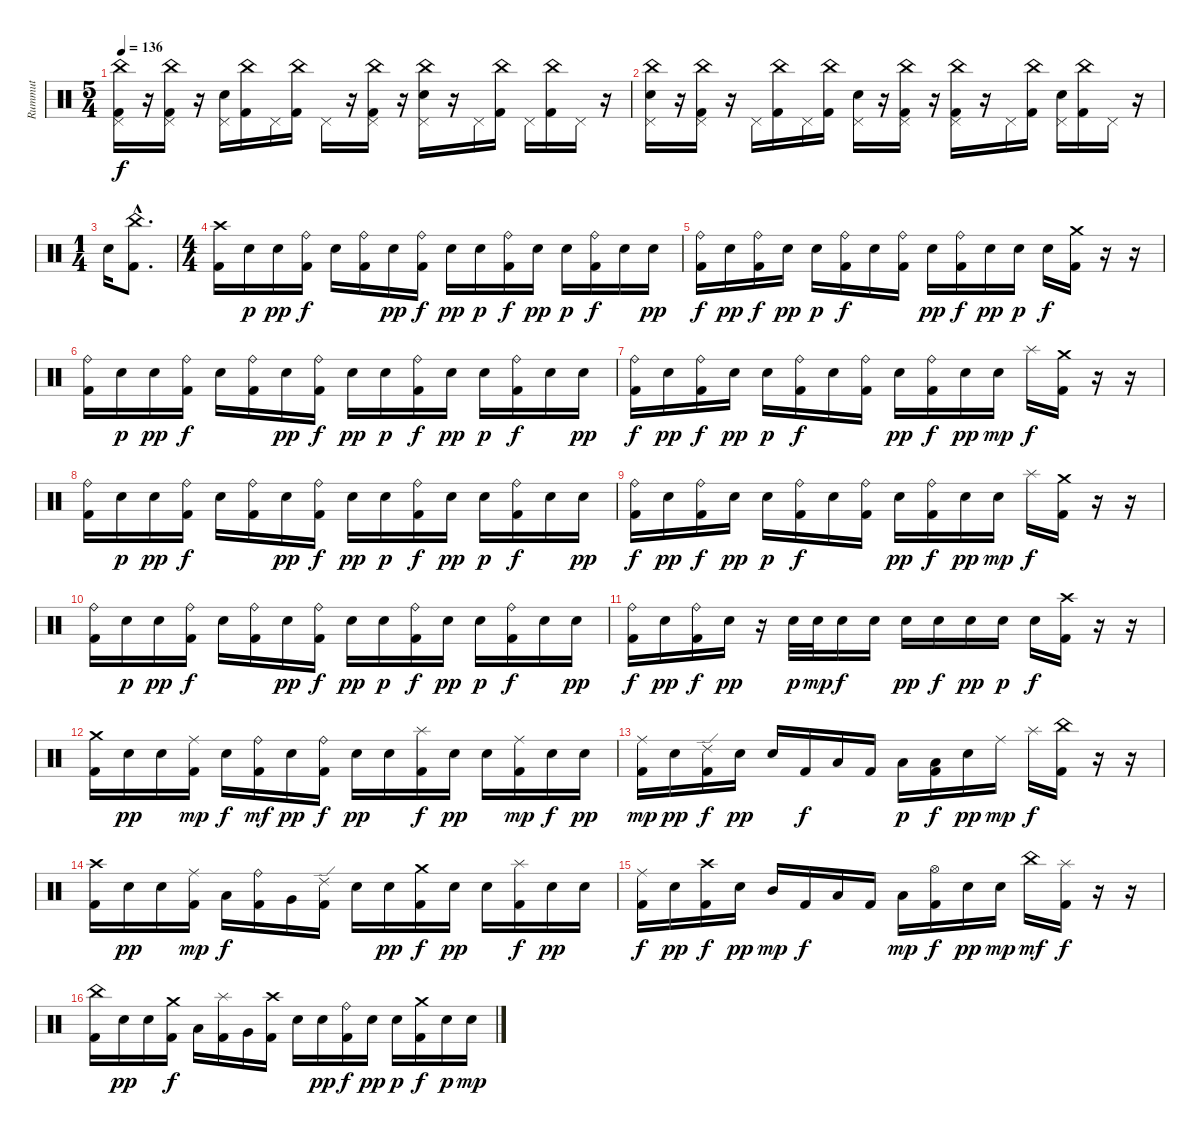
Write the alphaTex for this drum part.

\track ("Rummut" "Rummut") {instrument percussion}
\staff {score}
\articulation defaults
\ts (5 4)
\tempo 136
\clef neutral
\ks c
("China (hit)" "Pedal Hi-Hat (hit)" "Kick (hit) 2").16{dy f} r.16 ("China (hit)" "Pedal Hi-Hat (hit)" "Kick (hit) 2").16 r.16 ("Pedal Hi-Hat (hit)" "Electric Snare (hit)").16 ("China (hit)" "Kick (hit) 2").16 "Pedal Hi-Hat (hit)".16 ("China (hit)" "Kick (hit) 2").16 "Pedal Hi-Hat (hit)".16 r.16 ("China (hit)" "Pedal Hi-Hat (hit)" "Kick (hit) 2").16 r.16 ("China (hit)" "Pedal Hi-Hat (hit)" "Electric Snare (hit)").16 r.16 "Pedal Hi-Hat (hit)".16 ("China (hit)" "Kick (hit) 2").16 "Pedal Hi-Hat (hit)".16 ("China (hit)" "Kick (hit) 2").16 "Pedal Hi-Hat (hit)".16 r.16 |
("China (hit)" "Pedal Hi-Hat (hit)" "Electric Snare (hit)").16 r.16 ("China (hit)" "Pedal Hi-Hat (hit)" "Kick (hit) 2").16 r.16 "Pedal Hi-Hat (hit)".16 ("China (hit)" "Kick (hit) 2").16 "Pedal Hi-Hat (hit)".16 ("China (hit)" "Kick (hit) 2").16 ("Pedal Hi-Hat (hit)" "Electric Snare (hit)").16 r.16 ("China (hit)" "Pedal Hi-Hat (hit)" "Kick (hit) 2").16 r.16 ("China (hit)" "Pedal Hi-Hat (hit)" "Kick (hit) 2").16 r.16 "Pedal Hi-Hat (hit)".16 ("China (hit)" "Kick (hit) 2").16 ("Pedal Hi-Hat (hit)" "Electric Snare (hit)").16 ("China (hit)" "Kick (hit) 2").16 "Pedal Hi-Hat (hit)".16 r.16 |
\ts (1 4)
"Electric Snare (hit)".16 ("China (hit)"{hac} "Kick (hit) 2"{hac}).8{d} |
\ts (4 4)
("Crash high (hit)" "Kick (hit) 2").16 "Electric Snare (hit)".16{dy p} "Electric Snare (hit)".16{dy pp} ("Ride (bell)" "Kick (hit) 2").16{dy f} "Electric Snare (hit)".16 ("Ride (bell)" "Kick (hit) 2").16 "Electric Snare (hit)".16{dy pp} ("Ride (bell)" "Kick (hit) 2").16{dy f} "Electric Snare (hit)".16{dy pp} "Electric Snare (hit)".16{dy p} ("Ride (bell)" "Kick (hit) 2").16{dy f} "Electric Snare (hit)".16{dy pp} "Electric Snare (hit)".16{dy p} ("Ride (bell)" "Kick (hit) 2").16{dy f} "Electric Snare (hit)".16 "Electric Snare (hit)".16{dy pp} |
("Ride (bell)" "Kick (hit) 2").16{dy f} "Electric Snare (hit)".16{dy pp} ("Ride (bell)" "Kick (hit) 2").16{dy f} "Electric Snare (hit)".16{dy pp} "Electric Snare (hit)".16{dy p} ("Ride (bell)" "Kick (hit) 2").16{dy f} "Electric Snare (hit)".16 ("Ride (bell)" "Kick (hit) 2").16 "Electric Snare (hit)".16{dy pp} ("Ride (bell)" "Kick (hit) 2").16{dy f} "Electric Snare (hit)".16{dy pp} "Electric Snare (hit)".16{dy p} "Electric Snare (hit)".16{dy f} ("Crash medium (hit)" "Kick (hit) 2").16 r.16 r.16 |
("Ride (bell)" "Kick (hit) 2").16 "Electric Snare (hit)".16{dy p} "Electric Snare (hit)".16{dy pp} ("Ride (bell)" "Kick (hit) 2").16{dy f} "Electric Snare (hit)".16 ("Ride (bell)" "Kick (hit) 2").16 "Electric Snare (hit)".16{dy pp} ("Ride (bell)" "Kick (hit) 2").16{dy f} "Electric Snare (hit)".16{dy pp} "Electric Snare (hit)".16{dy p} ("Ride (bell)" "Kick (hit) 2").16{dy f} "Electric Snare (hit)".16{dy pp} "Electric Snare (hit)".16{dy p} ("Ride (bell)" "Kick (hit) 2").16{dy f} "Electric Snare (hit)".16 "Electric Snare (hit)".16{dy pp} |
("Ride (bell)" "Kick (hit) 2").16{dy f} "Electric Snare (hit)".16{dy pp} ("Ride (bell)" "Kick (hit) 2").16{dy f} "Electric Snare (hit)".16{dy pp} "Electric Snare (hit)".16{dy p} ("Ride (bell)" "Kick (hit) 2").16{dy f} "Electric Snare (hit)".16 ("Ride (bell)" "Kick (hit) 2").16 "Electric Snare (hit)".16{dy pp} ("Ride (bell)" "Kick (hit) 2").16{dy f} "Electric Snare (hit)".16{dy pp} "Electric Snare (hit)".16{dy mp} "Splash (hit)".16{dy f} ("Crash medium (hit)" "Kick (hit) 2").16 r.16 r.16 |
("Ride (bell)" "Kick (hit) 2").16 "Electric Snare (hit)".16{dy p} "Electric Snare (hit)".16{dy pp} ("Ride (bell)" "Kick (hit) 2").16{dy f} "Electric Snare (hit)".16 ("Ride (bell)" "Kick (hit) 2").16 "Electric Snare (hit)".16{dy pp} ("Ride (bell)" "Kick (hit) 2").16{dy f} "Electric Snare (hit)".16{dy pp} "Electric Snare (hit)".16{dy p} ("Ride (bell)" "Kick (hit) 2").16{dy f} "Electric Snare (hit)".16{dy pp} "Electric Snare (hit)".16{dy p} ("Ride (bell)" "Kick (hit) 2").16{dy f} "Electric Snare (hit)".16 "Electric Snare (hit)".16{dy pp} |
("Ride (bell)" "Kick (hit) 2").16{dy f} "Electric Snare (hit)".16{dy pp} ("Ride (bell)" "Kick (hit) 2").16{dy f} "Electric Snare (hit)".16{dy pp} "Electric Snare (hit)".16{dy p} ("Ride (bell)" "Kick (hit) 2").16{dy f} "Electric Snare (hit)".16 ("Ride (bell)" "Kick (hit) 2").16 "Electric Snare (hit)".16{dy pp} ("Ride (bell)" "Kick (hit) 2").16{dy f} "Electric Snare (hit)".16{dy pp} "Electric Snare (hit)".16{dy mp} "Splash (hit)".16{dy f} ("Crash medium (hit)" "Kick (hit) 2").16 r.16 r.16 |
("Ride (bell)" "Kick (hit) 2").16 "Electric Snare (hit)".16{dy p} "Electric Snare (hit)".16{dy pp} ("Ride (bell)" "Kick (hit) 2").16{dy f} "Electric Snare (hit)".16 ("Ride (bell)" "Kick (hit) 2").16 "Electric Snare (hit)".16{dy pp} ("Ride (bell)" "Kick (hit) 2").16{dy f} "Electric Snare (hit)".16{dy pp} "Electric Snare (hit)".16{dy p} ("Ride (bell)" "Kick (hit) 2").16{dy f} "Electric Snare (hit)".16{dy pp} "Electric Snare (hit)".16{dy p} ("Ride (bell)" "Kick (hit) 2").16{dy f} "Electric Snare (hit)".16 "Electric Snare (hit)".16{dy pp} |
("Ride (bell)" "Kick (hit) 2").16{dy f} "Electric Snare (hit)".16{dy pp} ("Ride (bell)" "Kick (hit) 2").16{dy f} "Electric Snare (hit)".16{dy pp} r.16 "Electric Snare (hit)".32{dy p} "Electric Snare (hit)".32{dy mp} "Electric Snare (hit)".16{dy f} "Electric Snare (hit)".16 "Electric Snare (hit)".16{dy pp} "Electric Snare (hit)".16{dy f} "Electric Snare (hit)".16{dy pp} "Electric Snare (hit)".16{dy p} "Electric Snare (hit)".16{dy f} ("Crash high (hit)" "Kick (hit) 2").16 r.16 r.16 |
("Crash medium (hit)" "Kick (hit) 2").16 "Electric Snare (hit)".16{dy pp} "Electric Snare (hit)".16 ("Ride (middle)" "Kick (hit) 2").16{dy mp} "Electric Snare (hit)".16{dy f} ("Ride (bell)" "Kick (hit) 2").16{dy mf} "Electric Snare (hit)".16{dy pp} ("Ride (bell)" "Kick (hit) 2").16{dy f} "Electric Snare (hit)".16{dy pp} "Electric Snare (hit)".16 ("Splash (hit)" "Kick (hit) 2").16{dy f} "Electric Snare (hit)".16{dy pp} "Electric Snare (hit)".16 ("Ride (middle)" "Kick (hit) 2").16{dy mp} "Electric Snare (hit)".16{dy f} "Electric Snare (hit)".16{dy pp} |
("Ride (middle)" "Kick (hit) 2").16{dy mp} "Electric Snare (hit)".16{dy pp} ("Ride (edge) 2" "Kick (hit) 2").16{dy f} "Electric Snare (hit)".16{dy pp} "Electric Snare (hit)".16 "Kick (hit) 2".16{dy f} "Low Tom (hit)".16 "Kick (hit) 2".16 "Low Tom (hit)".16{dy p} ("Low Tom (hit)" "Kick (hit) 2").16{dy f} "Electric Snare (hit)".16{dy pp} "Ride (middle)".16{dy mp} "Splash (hit)".16{dy f} ("China (hit)" "Kick (hit) 2").16 r.16 r.16 |
("Crash high (hit)" "Kick (hit) 2").16 "Electric Snare (hit)".16{dy pp} "Electric Snare (hit)".16 ("Ride (middle)" "Kick (hit) 2").16{dy mp} "Low Tom (hit)".16{dy f} ("Ride (bell)" "Kick (hit) 2").16 "Very Low Tom (hit)".16 ("Ride (edge) 2" "Kick (hit) 2").16 "Electric Snare (hit)".16 "Electric Snare (hit)".16{dy pp} ("Crash medium (hit)" "Kick (hit) 2").16{dy f} "Electric Snare (hit)".16{dy pp} "Electric Snare (hit)".16 ("Splash (hit)" "Kick (hit) 2").16{dy f} "Electric Snare (hit)".16{dy pp} "Electric Snare (hit)".16 |
("Ride (middle)" "Kick (hit) 2").16{dy f} "Electric Snare (hit)".16{dy pp} ("Crash high (hit)" "Kick (hit) 2").16{dy f} "Electric Snare (hit)".16{dy pp} "Mid Tom (hit)".16{dy mp} "Kick (hit) 2".16{dy f} "Low Tom (hit)".16 "Kick (hit) 2".16 "Low Tom (hit)".16{dy mp} ("Hi-Hat (open)" "Kick (hit) 2").16{dy f} "Electric Snare (hit)".16{dy pp} "Electric Snare (hit)".16{dy mp} "China (hit)".16{dy mf} ("Splash (hit)" "Kick (hit) 2").16{dy f} r.16 r.16 |
("China (hit)" "Kick (hit) 2").16 "Electric Snare (hit)".16{dy pp} "Electric Snare (hit)".16 ("Crash medium (hit)" "Kick (hit) 2").16{dy f} "Low Tom (hit)".16 ("Splash (hit)" "Kick (hit) 2").16 "Very Low Tom (hit)".16 ("Crash high (hit)" "Kick (hit) 2").16 "Electric Snare (hit)".16 "Electric Snare (hit)".16{dy pp} ("Ride (bell)" "Kick (hit) 2").16{dy f} "Electric Snare (hit)".16{dy pp} "Electric Snare (hit)".16{dy p} ("Crash medium (hit)" "Kick (hit) 2").16{dy f} "Electric Snare (hit)".16{dy p} "Electric Snare (hit)".16{dy mp}
